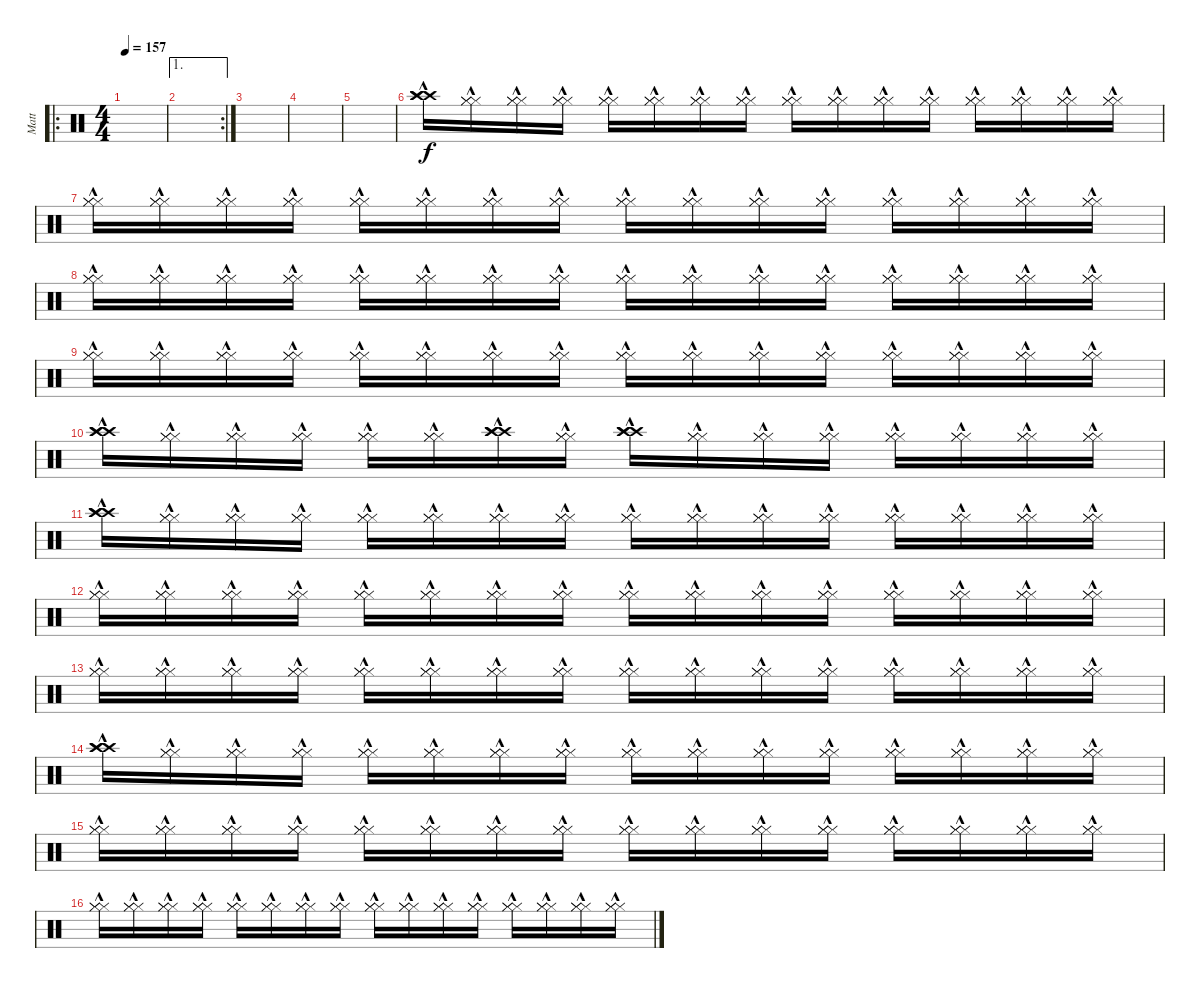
\track ("Matt" "Matt") {instrument percussion}
\staff {score}
\articulation defaults
\ro
\ts (4 4)
\tempo 157
\clef neutral
\ks c
|
\ae 1
\rc 2
|
|
|
|
("Crash high (hit)"{hac} "Crash high (hit)"{hac} "Crash high (hit)"{hac}).16 ("Hi-Hat (closed)"{hac} "Hi-Hat (closed)"{hac} "Hi-Hat (closed)"{hac}).16 ("Hi-Hat (closed)"{hac} "Hi-Hat (closed)"{hac} "Hi-Hat (closed)"{hac}).16 ("Hi-Hat (closed)"{hac} "Hi-Hat (closed)"{hac} "Hi-Hat (closed)"{hac}).16 ("Hi-Hat (closed)"{hac} "Hi-Hat (closed)"{hac} "Hi-Hat (closed)"{hac}).16 ("Hi-Hat (closed)"{hac} "Hi-Hat (closed)"{hac} "Hi-Hat (closed)"{hac}).16 ("Hi-Hat (closed)"{hac} "Hi-Hat (closed)"{hac} "Hi-Hat (closed)"{hac}).16 ("Hi-Hat (closed)"{hac} "Hi-Hat (closed)"{hac} "Hi-Hat (closed)"{hac}).16 ("Hi-Hat (closed)"{hac} "Hi-Hat (closed)"{hac} "Hi-Hat (closed)"{hac}).16 ("Hi-Hat (closed)"{hac} "Hi-Hat (closed)"{hac} "Hi-Hat (closed)"{hac}).16 ("Hi-Hat (closed)"{hac} "Hi-Hat (closed)"{hac} "Hi-Hat (closed)"{hac}).16 ("Hi-Hat (closed)"{hac} "Hi-Hat (closed)"{hac} "Hi-Hat (closed)"{hac}).16 ("Hi-Hat (closed)"{hac} "Hi-Hat (closed)"{hac} "Hi-Hat (closed)"{hac}).16 ("Hi-Hat (closed)"{hac} "Hi-Hat (closed)"{hac} "Hi-Hat (closed)"{hac}).16 ("Hi-Hat (closed)"{hac} "Hi-Hat (closed)"{hac} "Hi-Hat (closed)"{hac}).16 ("Hi-Hat (closed)"{hac} "Hi-Hat (closed)"{hac} "Hi-Hat (closed)"{hac}).16 |
("Hi-Hat (closed)"{hac} "Hi-Hat (closed)"{hac} "Hi-Hat (closed)"{hac}).16 ("Hi-Hat (closed)"{hac} "Hi-Hat (closed)"{hac} "Hi-Hat (closed)"{hac}).16 ("Hi-Hat (closed)"{hac} "Hi-Hat (closed)"{hac} "Hi-Hat (closed)"{hac}).16 ("Hi-Hat (closed)"{hac} "Hi-Hat (closed)"{hac} "Hi-Hat (closed)"{hac}).16 ("Hi-Hat (closed)"{hac} "Hi-Hat (closed)"{hac} "Hi-Hat (closed)"{hac}).16 ("Hi-Hat (closed)"{hac} "Hi-Hat (closed)"{hac} "Hi-Hat (closed)"{hac}).16 ("Hi-Hat (closed)"{hac} "Hi-Hat (closed)"{hac} "Hi-Hat (closed)"{hac}).16 ("Hi-Hat (closed)"{hac} "Hi-Hat (closed)"{hac} "Hi-Hat (closed)"{hac}).16 ("Hi-Hat (closed)"{hac} "Hi-Hat (closed)"{hac} "Hi-Hat (closed)"{hac}).16 ("Hi-Hat (closed)"{hac} "Hi-Hat (closed)"{hac} "Hi-Hat (closed)"{hac}).16 ("Hi-Hat (closed)"{hac} "Hi-Hat (closed)"{hac} "Hi-Hat (closed)"{hac}).16 ("Hi-Hat (closed)"{hac} "Hi-Hat (closed)"{hac} "Hi-Hat (closed)"{hac}).16 ("Hi-Hat (closed)"{hac} "Hi-Hat (closed)"{hac} "Hi-Hat (closed)"{hac}).16 ("Hi-Hat (closed)"{hac} "Hi-Hat (closed)"{hac} "Hi-Hat (closed)"{hac}).16 ("Hi-Hat (closed)"{hac} "Hi-Hat (closed)"{hac} "Hi-Hat (closed)"{hac}).16 ("Hi-Hat (closed)"{hac} "Hi-Hat (closed)"{hac} "Hi-Hat (closed)"{hac}).16 |
("Hi-Hat (closed)"{hac} "Hi-Hat (closed)"{hac} "Hi-Hat (closed)"{hac}).16 ("Hi-Hat (closed)"{hac} "Hi-Hat (closed)"{hac} "Hi-Hat (closed)"{hac}).16 ("Hi-Hat (closed)"{hac} "Hi-Hat (closed)"{hac} "Hi-Hat (closed)"{hac}).16 ("Hi-Hat (closed)"{hac} "Hi-Hat (closed)"{hac} "Hi-Hat (closed)"{hac}).16 ("Hi-Hat (closed)"{hac} "Hi-Hat (closed)"{hac} "Hi-Hat (closed)"{hac}).16 ("Hi-Hat (closed)"{hac} "Hi-Hat (closed)"{hac} "Hi-Hat (closed)"{hac}).16 ("Hi-Hat (closed)"{hac} "Hi-Hat (closed)"{hac} "Hi-Hat (closed)"{hac}).16 ("Hi-Hat (closed)"{hac} "Hi-Hat (closed)"{hac} "Hi-Hat (closed)"{hac}).16 ("Hi-Hat (closed)"{hac} "Hi-Hat (closed)"{hac} "Hi-Hat (closed)"{hac}).16 ("Hi-Hat (closed)"{hac} "Hi-Hat (closed)"{hac} "Hi-Hat (closed)"{hac}).16 ("Hi-Hat (closed)"{hac} "Hi-Hat (closed)"{hac} "Hi-Hat (closed)"{hac}).16 ("Hi-Hat (closed)"{hac} "Hi-Hat (closed)"{hac} "Hi-Hat (closed)"{hac}).16 ("Hi-Hat (closed)"{hac} "Hi-Hat (closed)"{hac} "Hi-Hat (closed)"{hac}).16 ("Hi-Hat (closed)"{hac} "Hi-Hat (closed)"{hac} "Hi-Hat (closed)"{hac}).16 ("Hi-Hat (closed)"{hac} "Hi-Hat (closed)"{hac} "Hi-Hat (closed)"{hac}).16 ("Hi-Hat (closed)"{hac} "Hi-Hat (closed)"{hac} "Hi-Hat (closed)"{hac}).16 |
("Hi-Hat (closed)"{hac} "Hi-Hat (closed)"{hac} "Hi-Hat (closed)"{hac}).16 ("Hi-Hat (closed)"{hac} "Hi-Hat (closed)"{hac} "Hi-Hat (closed)"{hac}).16 ("Hi-Hat (closed)"{hac} "Hi-Hat (closed)"{hac} "Hi-Hat (closed)"{hac}).16 ("Hi-Hat (closed)"{hac} "Hi-Hat (closed)"{hac} "Hi-Hat (closed)"{hac}).16 ("Hi-Hat (closed)"{hac} "Hi-Hat (closed)"{hac} "Hi-Hat (closed)"{hac}).16 ("Hi-Hat (closed)"{hac} "Hi-Hat (closed)"{hac} "Hi-Hat (closed)"{hac}).16 ("Hi-Hat (closed)"{hac} "Hi-Hat (closed)"{hac} "Hi-Hat (closed)"{hac}).16 ("Hi-Hat (closed)"{hac} "Hi-Hat (closed)"{hac} "Hi-Hat (closed)"{hac}).16 ("Hi-Hat (closed)"{hac} "Hi-Hat (closed)"{hac} "Hi-Hat (closed)"{hac}).16 ("Hi-Hat (closed)"{hac} "Hi-Hat (closed)"{hac} "Hi-Hat (closed)"{hac}).16 ("Hi-Hat (closed)"{hac} "Hi-Hat (closed)"{hac} "Hi-Hat (closed)"{hac}).16 ("Hi-Hat (closed)"{hac} "Hi-Hat (closed)"{hac} "Hi-Hat (closed)"{hac}).16 ("Hi-Hat (closed)"{hac} "Hi-Hat (closed)"{hac} "Hi-Hat (closed)"{hac}).16 ("Hi-Hat (closed)"{hac} "Hi-Hat (closed)"{hac} "Hi-Hat (closed)"{hac}).16 ("Hi-Hat (closed)"{hac} "Hi-Hat (closed)"{hac} "Hi-Hat (closed)"{hac}).16 ("Hi-Hat (closed)"{hac} "Hi-Hat (closed)"{hac} "Hi-Hat (closed)"{hac}).16 |
("Crash high (hit)"{hac} "Crash high (hit)"{hac} "Crash high (hit)"{hac}).16 ("Hi-Hat (closed)"{hac} "Hi-Hat (closed)"{hac} "Hi-Hat (closed)"{hac}).16 ("Hi-Hat (closed)"{hac} "Hi-Hat (closed)"{hac} "Hi-Hat (closed)"{hac}).16 ("Hi-Hat (closed)"{hac} "Hi-Hat (closed)"{hac} "Hi-Hat (closed)"{hac}).16 ("Hi-Hat (closed)"{hac} "Hi-Hat (closed)"{hac} "Hi-Hat (closed)"{hac}).16 ("Hi-Hat (closed)"{hac} "Hi-Hat (closed)"{hac} "Hi-Hat (closed)"{hac}).16 ("Crash high (hit)"{hac} "Crash high (hit)"{hac} "Crash high (hit)"{hac}).16 ("Hi-Hat (closed)"{hac} "Hi-Hat (closed)"{hac} "Hi-Hat (closed)"{hac}).16 ("Crash high (hit)"{hac} "Crash high (hit)"{hac} "Crash high (hit)"{hac}).16 ("Hi-Hat (closed)"{hac} "Hi-Hat (closed)"{hac} "Hi-Hat (closed)"{hac}).16 ("Hi-Hat (closed)"{hac} "Hi-Hat (closed)"{hac} "Hi-Hat (closed)"{hac}).16 ("Hi-Hat (closed)"{hac} "Hi-Hat (closed)"{hac} "Hi-Hat (closed)"{hac}).16 ("Hi-Hat (closed)"{hac} "Hi-Hat (closed)"{hac} "Hi-Hat (closed)"{hac}).16 ("Hi-Hat (closed)"{hac} "Hi-Hat (closed)"{hac} "Hi-Hat (closed)"{hac}).16 ("Hi-Hat (closed)"{hac} "Hi-Hat (closed)"{hac} "Hi-Hat (closed)"{hac}).16 ("Hi-Hat (closed)"{hac} "Hi-Hat (closed)"{hac} "Hi-Hat (closed)"{hac}).16 |
("Crash high (hit)"{hac} "Crash high (hit)"{hac} "Crash high (hit)"{hac}).16 ("Hi-Hat (closed)"{hac} "Hi-Hat (closed)"{hac} "Hi-Hat (closed)"{hac}).16 ("Hi-Hat (closed)"{hac} "Hi-Hat (closed)"{hac} "Hi-Hat (closed)"{hac}).16 ("Hi-Hat (closed)"{hac} "Hi-Hat (closed)"{hac} "Hi-Hat (closed)"{hac}).16 ("Hi-Hat (closed)"{hac} "Hi-Hat (closed)"{hac} "Hi-Hat (closed)"{hac}).16 ("Hi-Hat (closed)"{hac} "Hi-Hat (closed)"{hac} "Hi-Hat (closed)"{hac}).16 ("Hi-Hat (closed)"{hac} "Hi-Hat (closed)"{hac} "Hi-Hat (closed)"{hac}).16 ("Hi-Hat (closed)"{hac} "Hi-Hat (closed)"{hac} "Hi-Hat (closed)"{hac}).16 ("Hi-Hat (closed)"{hac} "Hi-Hat (closed)"{hac} "Hi-Hat (closed)"{hac}).16 ("Hi-Hat (closed)"{hac} "Hi-Hat (closed)"{hac} "Hi-Hat (closed)"{hac}).16 ("Hi-Hat (closed)"{hac} "Hi-Hat (closed)"{hac} "Hi-Hat (closed)"{hac}).16 ("Hi-Hat (closed)"{hac} "Hi-Hat (closed)"{hac} "Hi-Hat (closed)"{hac}).16 ("Hi-Hat (closed)"{hac} "Hi-Hat (closed)"{hac} "Hi-Hat (closed)"{hac}).16 ("Hi-Hat (closed)"{hac} "Hi-Hat (closed)"{hac} "Hi-Hat (closed)"{hac}).16 ("Hi-Hat (closed)"{hac} "Hi-Hat (closed)"{hac} "Hi-Hat (closed)"{hac}).16 ("Hi-Hat (closed)"{hac} "Hi-Hat (closed)"{hac} "Hi-Hat (closed)"{hac}).16 |
("Hi-Hat (closed)"{hac} "Hi-Hat (closed)"{hac} "Hi-Hat (closed)"{hac}).16 ("Hi-Hat (closed)"{hac} "Hi-Hat (closed)"{hac} "Hi-Hat (closed)"{hac}).16 ("Hi-Hat (closed)"{hac} "Hi-Hat (closed)"{hac} "Hi-Hat (closed)"{hac}).16 ("Hi-Hat (closed)"{hac} "Hi-Hat (closed)"{hac} "Hi-Hat (closed)"{hac}).16 ("Hi-Hat (closed)"{hac} "Hi-Hat (closed)"{hac} "Hi-Hat (closed)"{hac}).16 ("Hi-Hat (closed)"{hac} "Hi-Hat (closed)"{hac} "Hi-Hat (closed)"{hac}).16 ("Hi-Hat (closed)"{hac} "Hi-Hat (closed)"{hac} "Hi-Hat (closed)"{hac}).16 ("Hi-Hat (closed)"{hac} "Hi-Hat (closed)"{hac} "Hi-Hat (closed)"{hac}).16 ("Hi-Hat (closed)"{hac} "Hi-Hat (closed)"{hac} "Hi-Hat (closed)"{hac}).16 ("Hi-Hat (closed)"{hac} "Hi-Hat (closed)"{hac} "Hi-Hat (closed)"{hac}).16 ("Hi-Hat (closed)"{hac} "Hi-Hat (closed)"{hac} "Hi-Hat (closed)"{hac}).16 ("Hi-Hat (closed)"{hac} "Hi-Hat (closed)"{hac} "Hi-Hat (closed)"{hac}).16 ("Hi-Hat (closed)"{hac} "Hi-Hat (closed)"{hac} "Hi-Hat (closed)"{hac}).16 ("Hi-Hat (closed)"{hac} "Hi-Hat (closed)"{hac} "Hi-Hat (closed)"{hac}).16 ("Hi-Hat (closed)"{hac} "Hi-Hat (closed)"{hac} "Hi-Hat (closed)"{hac}).16 ("Hi-Hat (closed)"{hac} "Hi-Hat (closed)"{hac} "Hi-Hat (closed)"{hac}).16 |
("Hi-Hat (closed)"{hac} "Hi-Hat (closed)"{hac} "Hi-Hat (closed)"{hac}).16 ("Hi-Hat (closed)"{hac} "Hi-Hat (closed)"{hac} "Hi-Hat (closed)"{hac}).16 ("Hi-Hat (closed)"{hac} "Hi-Hat (closed)"{hac} "Hi-Hat (closed)"{hac}).16 ("Hi-Hat (closed)"{hac} "Hi-Hat (closed)"{hac} "Hi-Hat (closed)"{hac}).16 ("Hi-Hat (closed)"{hac} "Hi-Hat (closed)"{hac} "Hi-Hat (closed)"{hac}).16 ("Hi-Hat (closed)"{hac} "Hi-Hat (closed)"{hac} "Hi-Hat (closed)"{hac}).16 ("Hi-Hat (closed)"{hac} "Hi-Hat (closed)"{hac} "Hi-Hat (closed)"{hac}).16 ("Hi-Hat (closed)"{hac} "Hi-Hat (closed)"{hac} "Hi-Hat (closed)"{hac}).16 ("Hi-Hat (closed)"{hac} "Hi-Hat (closed)"{hac} "Hi-Hat (closed)"{hac}).16 ("Hi-Hat (closed)"{hac} "Hi-Hat (closed)"{hac} "Hi-Hat (closed)"{hac}).16 ("Hi-Hat (closed)"{hac} "Hi-Hat (closed)"{hac} "Hi-Hat (closed)"{hac}).16 ("Hi-Hat (closed)"{hac} "Hi-Hat (closed)"{hac} "Hi-Hat (closed)"{hac}).16 ("Hi-Hat (closed)"{hac} "Hi-Hat (closed)"{hac} "Hi-Hat (closed)"{hac}).16 ("Hi-Hat (closed)"{hac} "Hi-Hat (closed)"{hac} "Hi-Hat (closed)"{hac}).16 ("Hi-Hat (closed)"{hac} "Hi-Hat (closed)"{hac} "Hi-Hat (closed)"{hac}).16 ("Hi-Hat (closed)"{hac} "Hi-Hat (closed)"{hac} "Hi-Hat (closed)"{hac}).16 |
("Crash high (hit)"{hac} "Crash high (hit)"{hac} "Crash high (hit)"{hac}).16 ("Hi-Hat (closed)"{hac} "Hi-Hat (closed)"{hac} "Hi-Hat (closed)"{hac}).16 ("Hi-Hat (closed)"{hac} "Hi-Hat (closed)"{hac} "Hi-Hat (closed)"{hac}).16 ("Hi-Hat (closed)"{hac} "Hi-Hat (closed)"{hac} "Hi-Hat (closed)"{hac}).16 ("Hi-Hat (closed)"{hac} "Hi-Hat (closed)"{hac} "Hi-Hat (closed)"{hac}).16 ("Hi-Hat (closed)"{hac} "Hi-Hat (closed)"{hac} "Hi-Hat (closed)"{hac}).16 ("Hi-Hat (closed)"{hac} "Hi-Hat (closed)"{hac} "Hi-Hat (closed)"{hac}).16 ("Hi-Hat (closed)"{hac} "Hi-Hat (closed)"{hac} "Hi-Hat (closed)"{hac}).16 ("Hi-Hat (closed)"{hac} "Hi-Hat (closed)"{hac} "Hi-Hat (closed)"{hac}).16 ("Hi-Hat (closed)"{hac} "Hi-Hat (closed)"{hac} "Hi-Hat (closed)"{hac}).16 ("Hi-Hat (closed)"{hac} "Hi-Hat (closed)"{hac} "Hi-Hat (closed)"{hac}).16 ("Hi-Hat (closed)"{hac} "Hi-Hat (closed)"{hac} "Hi-Hat (closed)"{hac}).16 ("Hi-Hat (closed)"{hac} "Hi-Hat (closed)"{hac} "Hi-Hat (closed)"{hac}).16 ("Hi-Hat (closed)"{hac} "Hi-Hat (closed)"{hac} "Hi-Hat (closed)"{hac}).16 ("Hi-Hat (closed)"{hac} "Hi-Hat (closed)"{hac} "Hi-Hat (closed)"{hac}).16 ("Hi-Hat (closed)"{hac} "Hi-Hat (closed)"{hac} "Hi-Hat (closed)"{hac}).16 |
("Hi-Hat (closed)"{hac} "Hi-Hat (closed)"{hac} "Hi-Hat (closed)"{hac}).16 ("Hi-Hat (closed)"{hac} "Hi-Hat (closed)"{hac} "Hi-Hat (closed)"{hac}).16 ("Hi-Hat (closed)"{hac} "Hi-Hat (closed)"{hac} "Hi-Hat (closed)"{hac}).16 ("Hi-Hat (closed)"{hac} "Hi-Hat (closed)"{hac} "Hi-Hat (closed)"{hac}).16 ("Hi-Hat (closed)"{hac} "Hi-Hat (closed)"{hac} "Hi-Hat (closed)"{hac}).16 ("Hi-Hat (closed)"{hac} "Hi-Hat (closed)"{hac} "Hi-Hat (closed)"{hac}).16 ("Hi-Hat (closed)"{hac} "Hi-Hat (closed)"{hac} "Hi-Hat (closed)"{hac}).16 ("Hi-Hat (closed)"{hac} "Hi-Hat (closed)"{hac} "Hi-Hat (closed)"{hac}).16 ("Hi-Hat (closed)"{hac} "Hi-Hat (closed)"{hac} "Hi-Hat (closed)"{hac}).16 ("Hi-Hat (closed)"{hac} "Hi-Hat (closed)"{hac} "Hi-Hat (closed)"{hac}).16 ("Hi-Hat (closed)"{hac} "Hi-Hat (closed)"{hac} "Hi-Hat (closed)"{hac}).16 ("Hi-Hat (closed)"{hac} "Hi-Hat (closed)"{hac} "Hi-Hat (closed)"{hac}).16 ("Hi-Hat (closed)"{hac} "Hi-Hat (closed)"{hac} "Hi-Hat (closed)"{hac}).16 ("Hi-Hat (closed)"{hac} "Hi-Hat (closed)"{hac} "Hi-Hat (closed)"{hac}).16 ("Hi-Hat (closed)"{hac} "Hi-Hat (closed)"{hac} "Hi-Hat (closed)"{hac}).16 ("Hi-Hat (closed)"{hac} "Hi-Hat (closed)"{hac} "Hi-Hat (closed)"{hac}).16 |
("Hi-Hat (closed)"{hac} "Hi-Hat (closed)"{hac} "Hi-Hat (closed)"{hac}).16 ("Hi-Hat (closed)"{hac} "Hi-Hat (closed)"{hac} "Hi-Hat (closed)"{hac}).16 ("Hi-Hat (closed)"{hac} "Hi-Hat (closed)"{hac} "Hi-Hat (closed)"{hac}).16 ("Hi-Hat (closed)"{hac} "Hi-Hat (closed)"{hac} "Hi-Hat (closed)"{hac}).16 ("Hi-Hat (closed)"{hac} "Hi-Hat (closed)"{hac} "Hi-Hat (closed)"{hac}).16 ("Hi-Hat (closed)"{hac} "Hi-Hat (closed)"{hac} "Hi-Hat (closed)"{hac}).16 ("Hi-Hat (closed)"{hac} "Hi-Hat (closed)"{hac} "Hi-Hat (closed)"{hac}).16 ("Hi-Hat (closed)"{hac} "Hi-Hat (closed)"{hac} "Hi-Hat (closed)"{hac}).16 ("Hi-Hat (closed)"{hac} "Hi-Hat (closed)"{hac} "Hi-Hat (closed)"{hac}).16 ("Hi-Hat (closed)"{hac} "Hi-Hat (closed)"{hac} "Hi-Hat (closed)"{hac}).16 ("Hi-Hat (closed)"{hac} "Hi-Hat (closed)"{hac} "Hi-Hat (closed)"{hac}).16 ("Hi-Hat (closed)"{hac} "Hi-Hat (closed)"{hac} "Hi-Hat (closed)"{hac}).16 ("Hi-Hat (closed)"{hac} "Hi-Hat (closed)"{hac} "Hi-Hat (closed)"{hac}).16 ("Hi-Hat (closed)"{hac} "Hi-Hat (closed)"{hac} "Hi-Hat (closed)"{hac}).16 ("Hi-Hat (closed)"{hac} "Hi-Hat (closed)"{hac} "Hi-Hat (closed)"{hac}).16 ("Hi-Hat (closed)"{hac} "Hi-Hat (closed)"{hac} "Hi-Hat (closed)"{hac}).16
